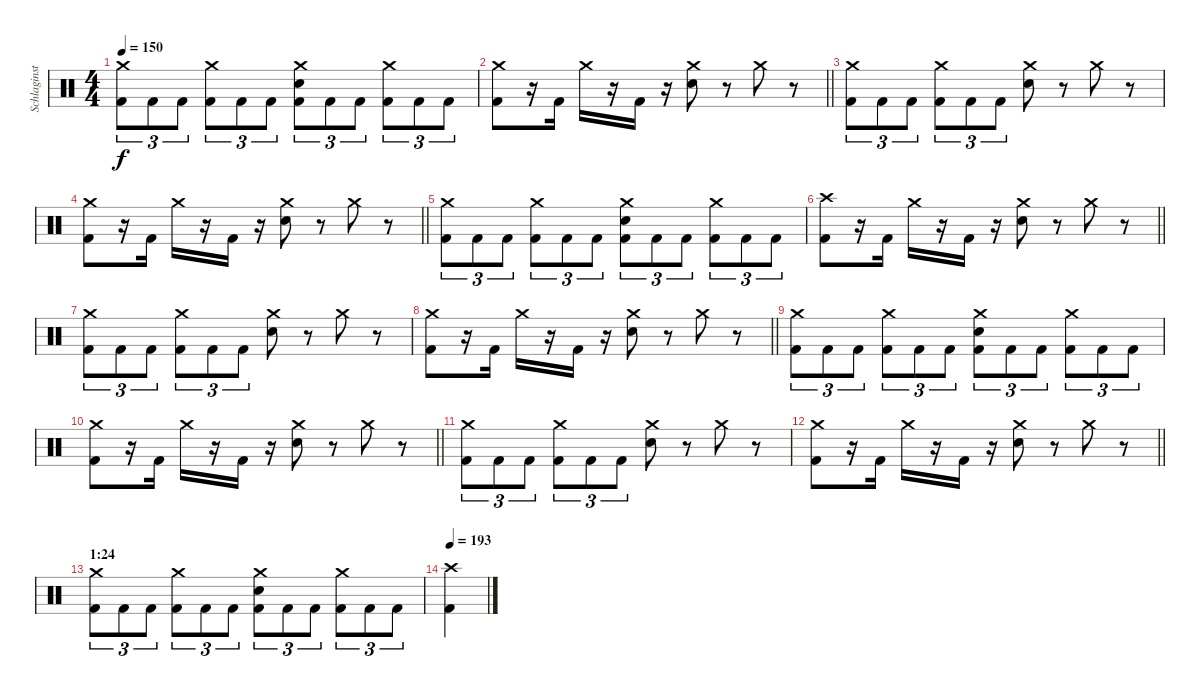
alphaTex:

\track ("Schlaginstrumente - Auswahl" "Schlaginst") {instrument percussion}
\staff {score}
\articulation defaults
\ts (4 4)
\tempo 150
\clef neutral
\ks c
("Crash medium (hit)" "Kick (hit) 2").8{tu (3 2) dy f} "Kick (hit) 2".8{tu (3 2)} "Kick (hit) 2".8{tu (3 2)} ("Crash medium (hit)" "Kick (hit) 2").8{tu (3 2)} "Kick (hit) 2".8{tu (3 2)} "Kick (hit) 2".8{tu (3 2)} ("Crash medium (hit)" "Electric Snare (hit)" "Kick (hit) 2").8{tu (3 2)} "Kick (hit) 2".8{tu (3 2)} "Kick (hit) 2".8{tu (3 2)} ("Crash medium (hit)" "Kick (hit) 2").8{tu (3 2)} "Kick (hit) 2".8{tu (3 2)} "Kick (hit) 2".8{tu (3 2)} |
\barLineRight lightlight
("Crash medium (hit)" "Kick (hit) 2").8 r.16 "Kick (hit) 2".16 "Crash medium (hit)".16 r.16 "Kick (hit) 2".16 r.16 ("Crash medium (hit)" "Electric Snare (hit)").8 r.8 "Crash medium (hit)".8 r.8 |
("Crash medium (hit)" "Kick (hit) 2").8{tu (3 2)} "Kick (hit) 2".8{tu (3 2)} "Kick (hit) 2".8{tu (3 2)} ("Crash medium (hit)" "Kick (hit) 2").8{tu (3 2)} "Kick (hit) 2".8{tu (3 2)} "Kick (hit) 2".8{tu (3 2)} ("Crash medium (hit)" "Electric Snare (hit)").8 r.8 "Crash medium (hit)".8 r.8 |
\barLineRight lightlight
("Crash medium (hit)" "Kick (hit) 2").8 r.16 "Kick (hit) 2".16 "Crash medium (hit)".16 r.16 "Kick (hit) 2".16 r.16 ("Crash medium (hit)" "Electric Snare (hit)").8 r.8 "Crash medium (hit)".8 r.8 |
("Crash medium (hit)" "Kick (hit) 2").8{tu (3 2)} "Kick (hit) 2".8{tu (3 2)} "Kick (hit) 2".8{tu (3 2)} ("Crash medium (hit)" "Kick (hit) 2").8{tu (3 2)} "Kick (hit) 2".8{tu (3 2)} "Kick (hit) 2".8{tu (3 2)} ("Crash medium (hit)" "Electric Snare (hit)" "Kick (hit) 2").8{tu (3 2)} "Kick (hit) 2".8{tu (3 2)} "Kick (hit) 2".8{tu (3 2)} ("Crash medium (hit)" "Kick (hit) 2").8{tu (3 2)} "Kick (hit) 2".8{tu (3 2)} "Kick (hit) 2".8{tu (3 2)} |
\barLineRight lightlight
("Crash high (hit)" "Kick (hit) 2").8 r.16 "Kick (hit) 2".16 "Crash medium (hit)".16 r.16 "Kick (hit) 2".16 r.16 ("Crash medium (hit)" "Electric Snare (hit)").8 r.8 "Crash medium (hit)".8 r.8 |
("Crash medium (hit)" "Kick (hit) 2").8{tu (3 2)} "Kick (hit) 2".8{tu (3 2)} "Kick (hit) 2".8{tu (3 2)} ("Crash medium (hit)" "Kick (hit) 2").8{tu (3 2)} "Kick (hit) 2".8{tu (3 2)} "Kick (hit) 2".8{tu (3 2)} ("Crash medium (hit)" "Electric Snare (hit)").8 r.8 "Crash medium (hit)".8 r.8 |
\barLineRight lightlight
("Crash medium (hit)" "Kick (hit) 2").8 r.16 "Kick (hit) 2".16 "Crash medium (hit)".16 r.16 "Kick (hit) 2".16 r.16 ("Crash medium (hit)" "Electric Snare (hit)").8 r.8 "Crash medium (hit)".8 r.8 |
("Crash medium (hit)" "Kick (hit) 2").8{tu (3 2)} "Kick (hit) 2".8{tu (3 2)} "Kick (hit) 2".8{tu (3 2)} ("Crash medium (hit)" "Kick (hit) 2").8{tu (3 2)} "Kick (hit) 2".8{tu (3 2)} "Kick (hit) 2".8{tu (3 2)} ("Crash medium (hit)" "Electric Snare (hit)" "Kick (hit) 2").8{tu (3 2)} "Kick (hit) 2".8{tu (3 2)} "Kick (hit) 2".8{tu (3 2)} ("Crash medium (hit)" "Kick (hit) 2").8{tu (3 2)} "Kick (hit) 2".8{tu (3 2)} "Kick (hit) 2".8{tu (3 2)} |
\barLineRight lightlight
("Crash medium (hit)" "Kick (hit) 2").8 r.16 "Kick (hit) 2".16 "Crash medium (hit)".16 r.16 "Kick (hit) 2".16 r.16 ("Crash medium (hit)" "Electric Snare (hit)").8 r.8 "Crash medium (hit)".8 r.8 |
("Crash medium (hit)" "Kick (hit) 2").8{tu (3 2)} "Kick (hit) 2".8{tu (3 2)} "Kick (hit) 2".8{tu (3 2)} ("Crash medium (hit)" "Kick (hit) 2").8{tu (3 2)} "Kick (hit) 2".8{tu (3 2)} "Kick (hit) 2".8{tu (3 2)} ("Crash medium (hit)" "Electric Snare (hit)").8 r.8 "Crash medium (hit)".8 r.8 |
\barLineRight lightlight
("Crash medium (hit)" "Kick (hit) 2").8 r.16 "Kick (hit) 2".16 "Crash medium (hit)".16 r.16 "Kick (hit) 2".16 r.16 ("Crash medium (hit)" "Electric Snare (hit)").8 r.8 "Crash medium (hit)".8 r.8 |
\section ("" "1:24")
("Crash medium (hit)" "Kick (hit) 2").8{tu (3 2)} "Kick (hit) 2".8{tu (3 2)} "Kick (hit) 2".8{tu (3 2)} ("Crash medium (hit)" "Kick (hit) 2").8{tu (3 2)} "Kick (hit) 2".8{tu (3 2)} "Kick (hit) 2".8{tu (3 2)} ("Crash medium (hit)" "Electric Snare (hit)" "Kick (hit) 2").8{tu (3 2)} "Kick (hit) 2".8{tu (3 2)} "Kick (hit) 2".8{tu (3 2)} ("Crash medium (hit)" "Kick (hit) 2").8{tu (3 2)} "Kick (hit) 2".8{tu (3 2)} "Kick (hit) 2".8{tu (3 2)} |
\tempo 193
("Crash high (hit)" "Kick (hit) 2").4
